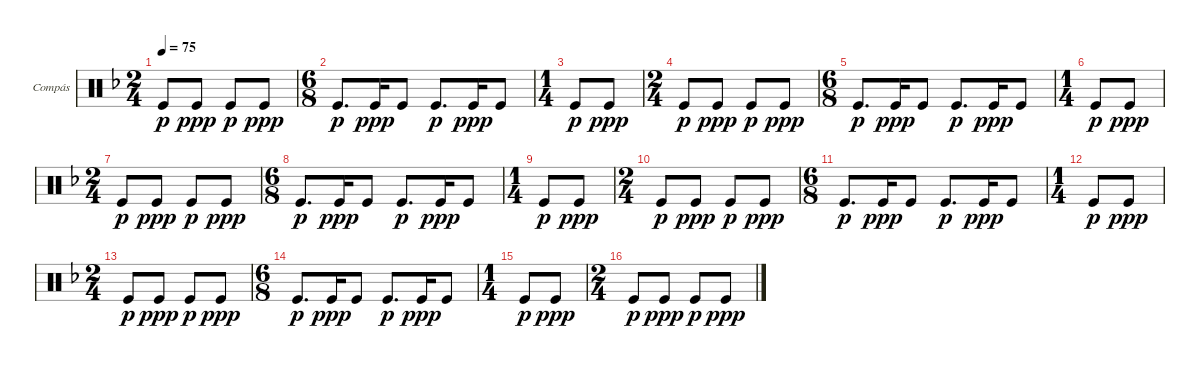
\defaultSystemsLayout 4
\bracketExtendMode groupsimilarinstruments
\firstSystemTrackNameOrientation horizontal
\otherSystemsTrackNameOrientation horizontal
\track ("Compás" "Compás") {instrument percussion}
\staff {score}
\articulation defaults
\ts (2 4)
\tempo 75
\clef neutral
\ks f "Kick (hit)".8{dy p} "Kick (hit)".8{dy ppp} "Kick (hit)".8{dy p} "Kick (hit)".8{dy ppp}
|
\ts (6 8)
"Kick (hit)".8{d dy p} "Kick (hit)".16{dy ppp} "Kick (hit)".8 "Kick (hit)".8{d dy p} "Kick (hit)".16{dy ppp} "Kick (hit)".8 |
\ts (1 4)
"Kick (hit)".8{dy p} "Kick (hit)".8{dy ppp} |
\ts (2 4)
"Kick (hit)".8{dy p} "Kick (hit)".8{dy ppp} "Kick (hit)".8{dy p} "Kick (hit)".8{dy ppp} |
\ts (6 8)
"Kick (hit)".8{d dy p} "Kick (hit)".16{dy ppp} "Kick (hit)".8 "Kick (hit)".8{d dy p} "Kick (hit)".16{dy ppp} "Kick (hit)".8 |
\ts (1 4)
"Kick (hit)".8{dy p} "Kick (hit)".8{dy ppp} |
\ts (2 4)
"Kick (hit)".8{dy p} "Kick (hit)".8{dy ppp} "Kick (hit)".8{dy p} "Kick (hit)".8{dy ppp} |
\ts (6 8)
"Kick (hit)".8{d dy p} "Kick (hit)".16{dy ppp} "Kick (hit)".8 "Kick (hit)".8{d dy p} "Kick (hit)".16{dy ppp} "Kick (hit)".8 |
\ts (1 4)
"Kick (hit)".8{dy p} "Kick (hit)".8{dy ppp} |
\ts (2 4)
"Kick (hit)".8{dy p} "Kick (hit)".8{dy ppp} "Kick (hit)".8{dy p} "Kick (hit)".8{dy ppp} |
\ts (6 8)
"Kick (hit)".8{d dy p} "Kick (hit)".16{dy ppp} "Kick (hit)".8 "Kick (hit)".8{d dy p} "Kick (hit)".16{dy ppp} "Kick (hit)".8 |
\ts (1 4)
"Kick (hit)".8{dy p} "Kick (hit)".8{dy ppp} |
\ts (2 4)
"Kick (hit)".8{dy p} "Kick (hit)".8{dy ppp} "Kick (hit)".8{dy p} "Kick (hit)".8{dy ppp} |
\ts (6 8)
"Kick (hit)".8{d dy p} "Kick (hit)".16{dy ppp} "Kick (hit)".8 "Kick (hit)".8{d dy p} "Kick (hit)".16{dy ppp} "Kick (hit)".8 |
\ts (1 4)
"Kick (hit)".8{dy p} "Kick (hit)".8{dy ppp} |
\ts (2 4)
"Kick (hit)".8{dy p} "Kick (hit)".8{dy ppp} "Kick (hit)".8{dy p} "Kick (hit)".8{dy ppp}
